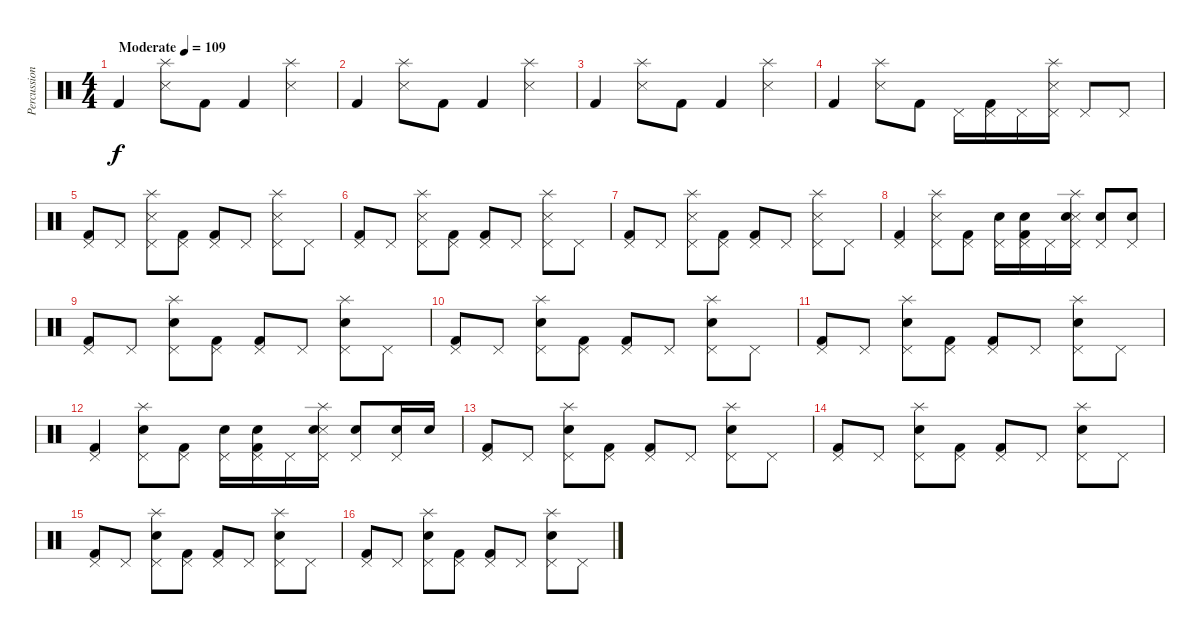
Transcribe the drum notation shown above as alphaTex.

\track ("Percussion" "Percussion") {instrument percussion}
\staff {score}
\articulation defaults
\ts (4 4)
\tempo (109 "Moderate")
\clef neutral
\ks c "Kick (hit) 2".4{dy f}
("Splash (hit)" "Snare (side stick) 3").8 "Kick (hit) 2".8 "Kick (hit) 2".4 ("Splash (hit)" "Snare (side stick) 3").4 |
"Kick (hit) 2".4 ("Splash (hit)" "Snare (side stick) 3").8 "Kick (hit) 2".8 "Kick (hit) 2".4 ("Splash (hit)" "Snare (side stick) 3").4 |
"Kick (hit) 2".4 ("Splash (hit)" "Snare (side stick) 3").8 "Kick (hit) 2".8 "Kick (hit) 2".4 ("Splash (hit)" "Snare (side stick) 3").4 |
"Kick (hit) 2".4 ("Splash (hit)" "Snare (side stick) 3").8 "Kick (hit) 2".8 "Pedal Hi-Hat (hit)".16 ("Pedal Hi-Hat (hit)" "Kick (hit) 2").16 "Pedal Hi-Hat (hit)".16 ("Pedal Hi-Hat (hit)" "Splash (hit)" "Snare (side stick) 3").16 "Pedal Hi-Hat (hit)".8 "Pedal Hi-Hat (hit)".8 |
("Pedal Hi-Hat (hit)" "Kick (hit) 2").8 "Pedal Hi-Hat (hit)".8 ("Pedal Hi-Hat (hit)" "Splash (hit)" "Snare (side stick) 3").8 ("Pedal Hi-Hat (hit)" "Kick (hit) 2").8 ("Pedal Hi-Hat (hit)" "Kick (hit) 2").8 "Pedal Hi-Hat (hit)".8 ("Pedal Hi-Hat (hit)" "Splash (hit)" "Snare (side stick) 3").8 "Pedal Hi-Hat (hit)".8 |
("Pedal Hi-Hat (hit)" "Kick (hit) 2").8 "Pedal Hi-Hat (hit)".8 ("Pedal Hi-Hat (hit)" "Splash (hit)" "Snare (side stick) 3").8 ("Pedal Hi-Hat (hit)" "Kick (hit) 2").8 ("Pedal Hi-Hat (hit)" "Kick (hit) 2").8 "Pedal Hi-Hat (hit)".8 ("Pedal Hi-Hat (hit)" "Splash (hit)" "Snare (side stick) 3").8 "Pedal Hi-Hat (hit)".8 |
("Pedal Hi-Hat (hit)" "Kick (hit) 2").8 "Pedal Hi-Hat (hit)".8 ("Pedal Hi-Hat (hit)" "Splash (hit)" "Snare (side stick) 3").8 ("Pedal Hi-Hat (hit)" "Kick (hit) 2").8 ("Pedal Hi-Hat (hit)" "Kick (hit) 2").8 "Pedal Hi-Hat (hit)".8 ("Pedal Hi-Hat (hit)" "Splash (hit)" "Snare (side stick) 3").8 "Pedal Hi-Hat (hit)".8 |
("Pedal Hi-Hat (hit)" "Kick (hit) 2").4 ("Pedal Hi-Hat (hit)" "Splash (hit)" "Snare (side stick) 3").8 ("Pedal Hi-Hat (hit)" "Kick (hit) 2").8 ("Pedal Hi-Hat (hit)" "Electric Snare (hit)").16 ("Pedal Hi-Hat (hit)" "Electric Snare (hit)" "Kick (hit) 2").16 "Pedal Hi-Hat (hit)".16 ("Pedal Hi-Hat (hit)" "Splash (hit)" "Snare (side stick) 3" "Electric Snare (hit)").16 ("Pedal Hi-Hat (hit)" "Electric Snare (hit)").8 ("Pedal Hi-Hat (hit)" "Electric Snare (hit)").8 |
("Pedal Hi-Hat (hit)" "Kick (hit) 2").8 "Pedal Hi-Hat (hit)".8 ("Pedal Hi-Hat (hit)" "Splash (hit)" "Electric Snare (hit)").8 ("Pedal Hi-Hat (hit)" "Kick (hit) 2").8 ("Pedal Hi-Hat (hit)" "Kick (hit) 2").8 "Pedal Hi-Hat (hit)".8 ("Pedal Hi-Hat (hit)" "Splash (hit)" "Electric Snare (hit)").8 "Pedal Hi-Hat (hit)".8 |
("Pedal Hi-Hat (hit)" "Kick (hit) 2").8 "Pedal Hi-Hat (hit)".8 ("Pedal Hi-Hat (hit)" "Splash (hit)" "Electric Snare (hit)").8 ("Pedal Hi-Hat (hit)" "Kick (hit) 2").8 ("Pedal Hi-Hat (hit)" "Kick (hit) 2").8 "Pedal Hi-Hat (hit)".8 ("Pedal Hi-Hat (hit)" "Splash (hit)" "Electric Snare (hit)").8 "Pedal Hi-Hat (hit)".8 |
("Pedal Hi-Hat (hit)" "Kick (hit) 2").8 "Pedal Hi-Hat (hit)".8 ("Pedal Hi-Hat (hit)" "Splash (hit)" "Electric Snare (hit)").8 ("Pedal Hi-Hat (hit)" "Kick (hit) 2").8 ("Pedal Hi-Hat (hit)" "Kick (hit) 2").8 "Pedal Hi-Hat (hit)".8 ("Pedal Hi-Hat (hit)" "Splash (hit)" "Electric Snare (hit)").8 "Pedal Hi-Hat (hit)".8 |
("Pedal Hi-Hat (hit)" "Kick (hit) 2").4 ("Pedal Hi-Hat (hit)" "Splash (hit)" "Electric Snare (hit)").8 ("Pedal Hi-Hat (hit)" "Kick (hit) 2").8 ("Pedal Hi-Hat (hit)" "Electric Snare (hit)").16 ("Pedal Hi-Hat (hit)" "Electric Snare (hit)" "Kick (hit) 2").16 "Pedal Hi-Hat (hit)".16 ("Pedal Hi-Hat (hit)" "Splash (hit)" "Snare (side stick) 3" "Electric Snare (hit)").16 ("Pedal Hi-Hat (hit)" "Electric Snare (hit)").8 ("Pedal Hi-Hat (hit)" "Electric Snare (hit)").16 "Electric Snare (hit)".16 |
("Pedal Hi-Hat (hit)" "Kick (hit) 2").8 "Pedal Hi-Hat (hit)".8 ("Pedal Hi-Hat (hit)" "Splash (hit)" "Electric Snare (hit)").8 ("Pedal Hi-Hat (hit)" "Kick (hit) 2").8 ("Pedal Hi-Hat (hit)" "Kick (hit) 2").8 "Pedal Hi-Hat (hit)".8 ("Pedal Hi-Hat (hit)" "Splash (hit)" "Electric Snare (hit)").8 "Pedal Hi-Hat (hit)".8 |
("Pedal Hi-Hat (hit)" "Kick (hit) 2").8 "Pedal Hi-Hat (hit)".8 ("Pedal Hi-Hat (hit)" "Splash (hit)" "Electric Snare (hit)").8 ("Pedal Hi-Hat (hit)" "Kick (hit) 2").8 ("Pedal Hi-Hat (hit)" "Kick (hit) 2").8 "Pedal Hi-Hat (hit)".8 ("Pedal Hi-Hat (hit)" "Splash (hit)" "Electric Snare (hit)").8 "Pedal Hi-Hat (hit)".8 |
("Pedal Hi-Hat (hit)" "Kick (hit) 2").8 "Pedal Hi-Hat (hit)".8 ("Pedal Hi-Hat (hit)" "Splash (hit)" "Electric Snare (hit)").8 ("Pedal Hi-Hat (hit)" "Kick (hit) 2").8 ("Pedal Hi-Hat (hit)" "Kick (hit) 2").8 "Pedal Hi-Hat (hit)".8 ("Pedal Hi-Hat (hit)" "Splash (hit)" "Electric Snare (hit)").8 "Pedal Hi-Hat (hit)".8 |
("Pedal Hi-Hat (hit)" "Kick (hit) 2").8 "Pedal Hi-Hat (hit)".8 ("Pedal Hi-Hat (hit)" "Splash (hit)" "Electric Snare (hit)").8 ("Pedal Hi-Hat (hit)" "Kick (hit) 2").8 ("Pedal Hi-Hat (hit)" "Kick (hit) 2").8 "Pedal Hi-Hat (hit)".8 ("Pedal Hi-Hat (hit)" "Splash (hit)" "Electric Snare (hit)").8 "Pedal Hi-Hat (hit)".8
